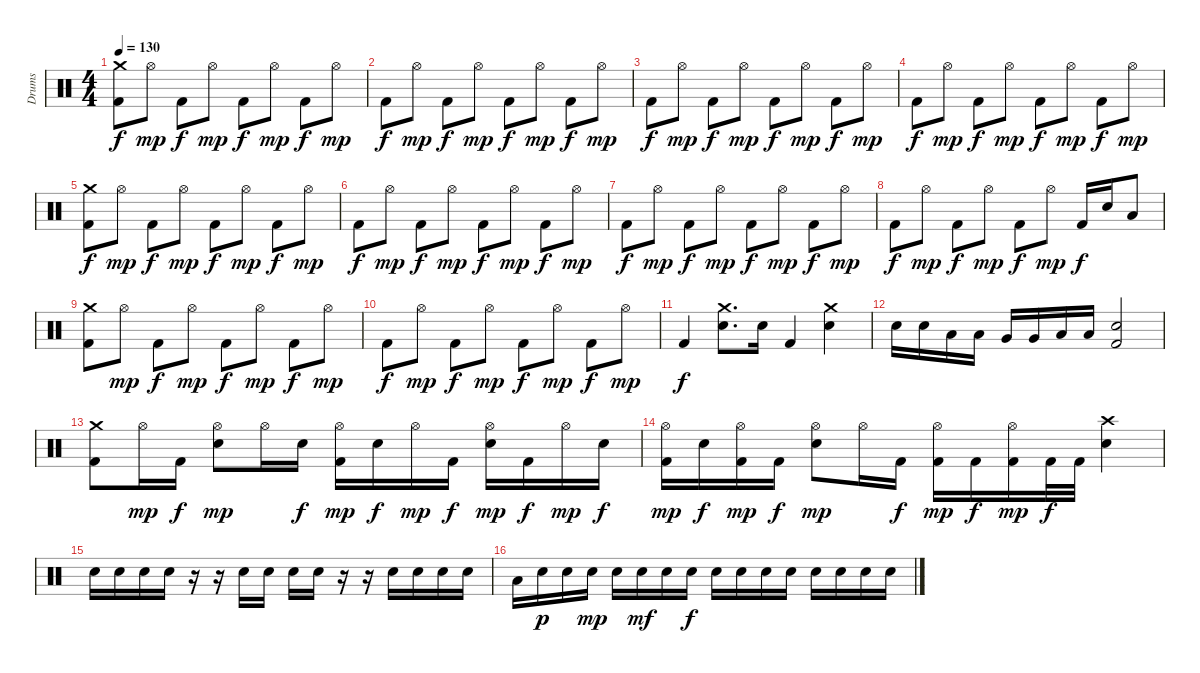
\track ("Drums" "Drums") {instrument percussion}
\staff {score}
\articulation defaults
\ts (4 4)
\tempo 130
\clef neutral
\ks c
("Crash medium (hit)" "Kick (hit) 2").8{dy f} "Hi-Hat (open)".8{dy mp} "Kick (hit) 2".8{dy f} "Hi-Hat (open)".8{dy mp} "Kick (hit) 2".8{dy f} "Hi-Hat (open)".8{dy mp} "Kick (hit) 2".8{dy f} "Hi-Hat (open)".8{dy mp} |
"Kick (hit) 2".8{dy f} "Hi-Hat (open)".8{dy mp} "Kick (hit) 2".8{dy f} "Hi-Hat (open)".8{dy mp} "Kick (hit) 2".8{dy f} "Hi-Hat (open)".8{dy mp} "Kick (hit) 2".8{dy f} "Hi-Hat (open)".8{dy mp} |
"Kick (hit) 2".8{dy f} "Hi-Hat (open)".8{dy mp} "Kick (hit) 2".8{dy f} "Hi-Hat (open)".8{dy mp} "Kick (hit) 2".8{dy f} "Hi-Hat (open)".8{dy mp} "Kick (hit) 2".8{dy f} "Hi-Hat (open)".8{dy mp} |
"Kick (hit) 2".8{dy f} "Hi-Hat (open)".8{dy mp} "Kick (hit) 2".8{dy f} "Hi-Hat (open)".8{dy mp} "Kick (hit) 2".8{dy f} "Hi-Hat (open)".8{dy mp} "Kick (hit) 2".8{dy f} "Hi-Hat (open)".8{dy mp} |
("Crash medium (hit)" "Kick (hit) 2").8{dy f} "Hi-Hat (open)".8{dy mp} "Kick (hit) 2".8{dy f} "Hi-Hat (open)".8{dy mp} "Kick (hit) 2".8{dy f} "Hi-Hat (open)".8{dy mp} "Kick (hit) 2".8{dy f} "Hi-Hat (open)".8{dy mp} |
"Kick (hit) 2".8{dy f} "Hi-Hat (open)".8{dy mp} "Kick (hit) 2".8{dy f} "Hi-Hat (open)".8{dy mp} "Kick (hit) 2".8{dy f} "Hi-Hat (open)".8{dy mp} "Kick (hit) 2".8{dy f} "Hi-Hat (open)".8{dy mp} |
"Kick (hit) 2".8{dy f} "Hi-Hat (open)".8{dy mp} "Kick (hit) 2".8{dy f} "Hi-Hat (open)".8{dy mp} "Kick (hit) 2".8{dy f} "Hi-Hat (open)".8{dy mp} "Kick (hit) 2".8{dy f} "Hi-Hat (open)".8{dy mp} |
"Kick (hit) 2".8{dy f} "Hi-Hat (open)".8{dy mp} "Kick (hit) 2".8{dy f} "Hi-Hat (open)".8{dy mp} "Kick (hit) 2".8{dy f} "Hi-Hat (open)".8{dy mp} "Kick (hit) 2".16{dy f} "Snare (hit) 2".16 "Low Tom (hit)".8 |
("Crash medium (hit)" "Kick (hit) 2").8 "Hi-Hat (open)".8{dy mp} "Kick (hit) 2".8{dy f} "Hi-Hat (open)".8{dy mp} "Kick (hit) 2".8{dy f} "Hi-Hat (open)".8{dy mp} "Kick (hit) 2".8{dy f} "Hi-Hat (open)".8{dy mp} |
"Kick (hit) 2".8{dy f} "Hi-Hat (open)".8{dy mp} "Kick (hit) 2".8{dy f} "Hi-Hat (open)".8{dy mp} "Kick (hit) 2".8{dy f} "Hi-Hat (open)".8{dy mp} "Kick (hit) 2".8{dy f} "Hi-Hat (open)".8{dy mp} |
"Kick (hit) 2".4{dy f} ("Crash medium (hit)" "Snare (hit) 2").8{d} "Snare (hit) 2".16 "Kick (hit) 2".4 ("Crash medium (hit)" "Snare (hit) 2").4 |
"Snare (hit) 2".16 "Snare (hit) 2".16 "Low Tom (hit)".16 "Low Tom (hit)".16 "Very Low Tom (hit)".16 "Very Low Tom (hit)".16 "Low Floor Tom (hit)".16 "Low Floor Tom (hit)".16 ("Snare (hit) 2" "Kick (hit) 2").2 |
("Crash medium (hit)" "Kick (hit) 2").8 "Hi-Hat (open)".16{dy mp} "Kick (hit) 2".16{dy f} ("Hi-Hat (open)" "Electric Snare (hit)").8{dy mp} "Hi-Hat (open)".16 "Electric Snare (hit)".16{dy f} ("Hi-Hat (open)" "Kick (hit) 2").16{dy mp} "Electric Snare (hit)".16{dy f} "Hi-Hat (open)".16{dy mp} "Kick (hit) 2".16{dy f} ("Hi-Hat (open)" "Electric Snare (hit)").16{dy mp} "Kick (hit) 2".16{dy f} "Hi-Hat (open)".16{dy mp} "Electric Snare (hit)".16{dy f} |
("Hi-Hat (open)" "Kick (hit) 2").16{dy mp} "Electric Snare (hit)".16{dy f} ("Hi-Hat (open)" "Kick (hit) 2").16{dy mp} "Kick (hit) 2".16{dy f} ("Hi-Hat (open)" "Electric Snare (hit)").8{dy mp} "Hi-Hat (open)".16 "Kick (hit) 2".16{dy f} ("Hi-Hat (open)" "Kick (hit) 2").16{dy mp} "Kick (hit) 2".16{dy f} ("Hi-Hat (open)" "Kick (hit) 2").16{dy mp} "Kick (hit) 2".32{dy f} "Kick (hit) 2".32 ("Crash high (hit)" "Electric Snare (hit)").4 |
"Snare (hit) 2".16 "Snare (hit) 2".16 "Snare (hit) 2".16 "Snare (hit) 2".16 r.16 r.16 "Snare (hit) 2".16 "Snare (hit) 2".16 "Snare (hit) 2".16 "Snare (hit) 2".16 r.16 r.16 "Snare (hit) 2".16 "Snare (hit) 2".16 "Snare (hit) 2".16 "Snare (hit) 2".16 |
"Low Tom (hit)".16 "Snare (hit) 2".16{dy p} "Snare (hit) 2".16 "Snare (hit) 2".16{dy mp} "Snare (hit) 2".16 "Snare (hit) 2".16{dy mf} "Snare (hit) 2".16 "Snare (hit) 2".16{dy f} "Snare (hit) 2".16 "Snare (hit) 2".16 "Snare (hit) 2".16 "Snare (hit) 2".16 "Snare (hit) 2".16 "Snare (hit) 2".16 "Snare (hit) 2".16 "Snare (hit) 2".16
